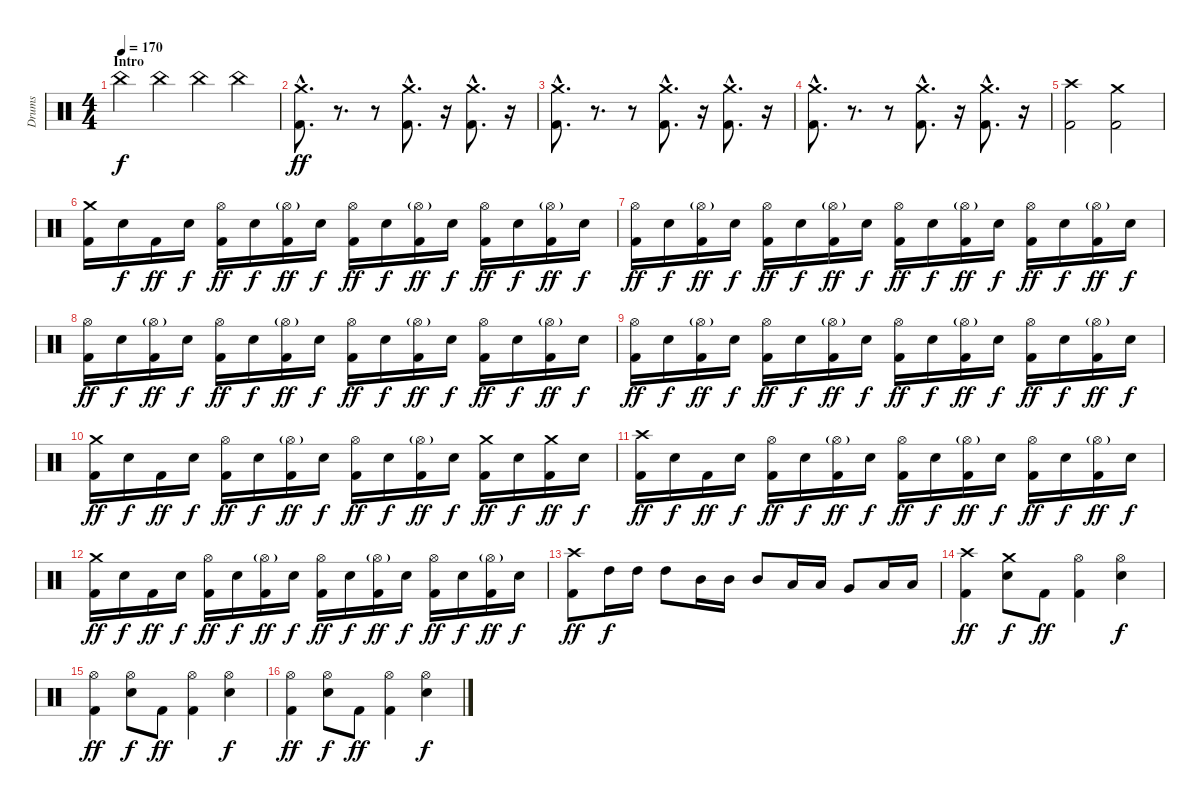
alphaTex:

\track ("Drums" "Drums") {instrument percussion}
\staff {score}
\articulation defaults
\ts (4 4)
\section ("" "Intro")
\tempo 170
\clef neutral
\ks c "China (hit)".4{dy f} "China (hit)".4 "China (hit)".4 "China (hit)".4
|
("Crash medium (hit)"{hac} "Kick (hit) 2"{hac}).8{d dy ff} r.8{d volume 4} r.8 ("Crash medium (hit)"{hac} "Kick (hit) 2"{hac}).8{d volume 13} r.16{volume 2} ("Crash medium (hit)"{hac} "Kick (hit) 2"{hac}).8{d volume 13} r.16{volume 4} |
("Crash medium (hit)"{hac} "Kick (hit) 2"{hac}).8{d volume 13} r.8{d volume 4} r.8 ("Crash medium (hit)"{hac} "Kick (hit) 2"{hac}).8{d volume 13} r.16{volume 2} ("Crash medium (hit)"{hac} "Kick (hit) 2"{hac}).8{d volume 13} r.16{volume 4} |
("Crash medium (hit)"{hac} "Kick (hit) 2"{hac}).8{d volume 13} r.8{d volume 4} r.8 ("Crash medium (hit)"{hac} "Kick (hit) 2"{hac}).8{d volume 13} r.16{volume 2} ("Crash medium (hit)"{hac} "Kick (hit) 2"{hac}).8{d volume 13} r.16{volume 4} |
("Crash high (hit)" "Kick (hit) 2").2{volume 13} ("Crash medium (hit)" "Kick (hit) 2").2 |
("Crash medium (hit)" "Kick (hit) 2").16 "Electric Snare (hit)".16{dy f} "Kick (hit) 2".16{dy ff} "Electric Snare (hit)".16{dy f} ("Hi-Hat (open)" "Kick (hit) 2").16{dy ff} "Electric Snare (hit)".16{dy f} ("Hi-Hat (open)"{g} "Kick (hit) 2").16{dy ff} "Electric Snare (hit)".16{dy f} ("Hi-Hat (open)" "Kick (hit) 2").16{dy ff} "Electric Snare (hit)".16{dy f} ("Hi-Hat (open)"{g} "Kick (hit) 2").16{dy ff} "Electric Snare (hit)".16{dy f} ("Hi-Hat (open)" "Kick (hit) 2").16{dy ff} "Electric Snare (hit)".16{dy f} ("Hi-Hat (open)"{g} "Kick (hit) 2").16{dy ff} "Electric Snare (hit)".16{dy f} |
("Hi-Hat (open)" "Kick (hit) 2").16{dy ff} "Electric Snare (hit)".16{dy f} ("Hi-Hat (open)"{g} "Kick (hit) 2").16{dy ff} "Electric Snare (hit)".16{dy f} ("Hi-Hat (open)" "Kick (hit) 2").16{dy ff} "Electric Snare (hit)".16{dy f} ("Hi-Hat (open)"{g} "Kick (hit) 2").16{dy ff} "Electric Snare (hit)".16{dy f} ("Hi-Hat (open)" "Kick (hit) 2").16{dy ff} "Electric Snare (hit)".16{dy f} ("Hi-Hat (open)"{g} "Kick (hit) 2").16{dy ff} "Electric Snare (hit)".16{dy f} ("Hi-Hat (open)" "Kick (hit) 2").16{dy ff} "Electric Snare (hit)".16{dy f} ("Hi-Hat (open)"{g} "Kick (hit) 2").16{dy ff} "Electric Snare (hit)".16{dy f} |
("Hi-Hat (open)" "Kick (hit) 2").16{dy ff} "Electric Snare (hit)".16{dy f} ("Hi-Hat (open)"{g} "Kick (hit) 2").16{dy ff} "Electric Snare (hit)".16{dy f} ("Hi-Hat (open)" "Kick (hit) 2").16{dy ff} "Electric Snare (hit)".16{dy f} ("Hi-Hat (open)"{g} "Kick (hit) 2").16{dy ff} "Electric Snare (hit)".16{dy f} ("Hi-Hat (open)" "Kick (hit) 2").16{dy ff} "Electric Snare (hit)".16{dy f} ("Hi-Hat (open)"{g} "Kick (hit) 2").16{dy ff} "Electric Snare (hit)".16{dy f} ("Hi-Hat (open)" "Kick (hit) 2").16{dy ff} "Electric Snare (hit)".16{dy f} ("Hi-Hat (open)"{g} "Kick (hit) 2").16{dy ff} "Electric Snare (hit)".16{dy f} |
("Hi-Hat (open)" "Kick (hit) 2").16{dy ff} "Electric Snare (hit)".16{dy f} ("Hi-Hat (open)"{g} "Kick (hit) 2").16{dy ff} "Electric Snare (hit)".16{dy f} ("Hi-Hat (open)" "Kick (hit) 2").16{dy ff} "Electric Snare (hit)".16{dy f} ("Hi-Hat (open)"{g} "Kick (hit) 2").16{dy ff} "Electric Snare (hit)".16{dy f} ("Hi-Hat (open)" "Kick (hit) 2").16{dy ff} "Electric Snare (hit)".16{dy f} ("Hi-Hat (open)"{g} "Kick (hit) 2").16{dy ff} "Electric Snare (hit)".16{dy f} ("Hi-Hat (open)" "Kick (hit) 2").16{dy ff} "Electric Snare (hit)".16{dy f} ("Hi-Hat (open)"{g} "Kick (hit) 2").16{dy ff} "Electric Snare (hit)".16{dy f} |
("Crash medium (hit)" "Kick (hit) 2").16{dy ff} "Electric Snare (hit)".16{dy f} "Kick (hit) 2".16{dy ff} "Electric Snare (hit)".16{dy f} ("Hi-Hat (open)" "Kick (hit) 2").16{dy ff} "Electric Snare (hit)".16{dy f} ("Hi-Hat (open)"{g} "Kick (hit) 2").16{dy ff} "Electric Snare (hit)".16{dy f} ("Hi-Hat (open)" "Kick (hit) 2").16{dy ff} "Electric Snare (hit)".16{dy f} ("Hi-Hat (open)"{g} "Kick (hit) 2").16{dy ff} "Electric Snare (hit)".16{dy f} ("Crash medium (hit)" "Kick (hit) 2").16{dy ff} "Electric Snare (hit)".16{dy f} ("Crash medium (hit)" "Kick (hit) 2").16{dy ff} "Electric Snare (hit)".16{dy f} |
("Crash high (hit)" "Kick (hit) 2").16{dy ff} "Electric Snare (hit)".16{dy f} "Kick (hit) 2".16{dy ff} "Electric Snare (hit)".16{dy f} ("Hi-Hat (open)" "Kick (hit) 2").16{dy ff} "Electric Snare (hit)".16{dy f} ("Hi-Hat (open)"{g} "Kick (hit) 2").16{dy ff} "Electric Snare (hit)".16{dy f} ("Hi-Hat (open)" "Kick (hit) 2").16{dy ff} "Electric Snare (hit)".16{dy f} ("Hi-Hat (open)"{g} "Kick (hit) 2").16{dy ff} "Electric Snare (hit)".16{dy f} ("Hi-Hat (open)" "Kick (hit) 2").16{dy ff} "Electric Snare (hit)".16{dy f} ("Hi-Hat (open)"{g} "Kick (hit) 2").16{dy ff} "Electric Snare (hit)".16{dy f} |
("Crash medium (hit)" "Kick (hit) 2").16{dy ff} "Electric Snare (hit)".16{dy f} "Kick (hit) 2".16{dy ff} "Electric Snare (hit)".16{dy f} ("Hi-Hat (open)" "Kick (hit) 2").16{dy ff} "Electric Snare (hit)".16{dy f} ("Hi-Hat (open)"{g} "Kick (hit) 2").16{dy ff} "Electric Snare (hit)".16{dy f} ("Hi-Hat (open)" "Kick (hit) 2").16{dy ff} "Electric Snare (hit)".16{dy f} ("Hi-Hat (open)"{g} "Kick (hit) 2").16{dy ff} "Electric Snare (hit)".16{dy f} ("Hi-Hat (open)" "Kick (hit) 2").16{dy ff} "Electric Snare (hit)".16{dy f} ("Hi-Hat (open)"{g} "Kick (hit) 2").16{dy ff} "Electric Snare (hit)".16{dy f} |
("Crash high (hit)" "Kick (hit) 2").8{dy ff} "High Tom (hit)".16{dy f} "High Tom (hit)".16 "High Tom (hit)".8 "Mid Tom (hit)".16 "Mid Tom (hit)".16 "Mid Tom (hit)".8 "Low Tom (hit)".16 "Low Tom (hit)".16 "Very Low Tom (hit)".8 "Low Floor Tom (hit)".16 "Low Floor Tom (hit)".16 |
("Crash high (hit)" "Kick (hit) 2").4{dy ff} ("Crash medium (hit)" "Electric Snare (hit)").8{dy f} "Kick (hit) 2".8{dy ff} ("Hi-Hat (open)" "Kick (hit) 2").4 ("Hi-Hat (open)" "Electric Snare (hit)").4{dy f} |
("Hi-Hat (open)" "Kick (hit) 2").4{dy ff} ("Hi-Hat (open)" "Electric Snare (hit)").8{dy f} "Kick (hit) 2".8{dy ff} ("Hi-Hat (open)" "Kick (hit) 2").4 ("Hi-Hat (open)" "Electric Snare (hit)").4{dy f} |
("Hi-Hat (open)" "Kick (hit) 2").4{dy ff} ("Hi-Hat (open)" "Electric Snare (hit)").8{dy f} "Kick (hit) 2".8{dy ff} ("Hi-Hat (open)" "Kick (hit) 2").4 ("Hi-Hat (open)" "Electric Snare (hit)").4{dy f}
